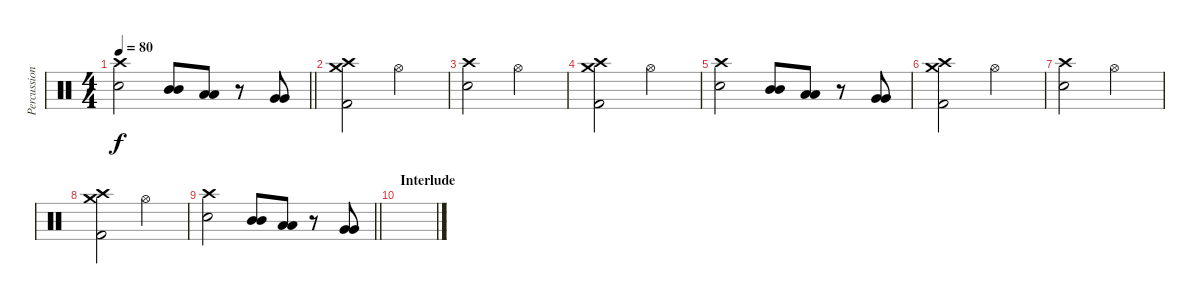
\track ("Percussioni" "Percussion") {instrument percussion}
\staff {score}
\articulation defaults
\ts (4 4)
\tempo 80
\clef neutral
\barLineRight lightlight
\ks c
("Crash high (hit)" "Snare (hit) 2").2{dy f} ("Mid Tom (hit)" "Mid Tom (hit)").8 ("Low Tom (hit)" "Low Tom (hit)").8 r.8 ("Very Low Tom (hit)" "Very Low Tom (hit)").8 |
("Crash high (hit)" "Crash medium (hit)" "Kick (hit) 2").2 "Hi-Hat (open)".2 |
("Crash high (hit)" "Snare (hit) 2").2 "Hi-Hat (open)".2 |
("Crash high (hit)" "Crash medium (hit)" "Kick (hit) 2").2 "Hi-Hat (open)".2 |
("Crash high (hit)" "Snare (hit) 2").2 ("Mid Tom (hit)" "Mid Tom (hit)").8 ("Low Tom (hit)" "Low Tom (hit)").8 r.8 ("Very Low Tom (hit)" "Very Low Tom (hit)").8 |
("Crash high (hit)" "Crash medium (hit)" "Kick (hit) 2").2 "Hi-Hat (open)".2 |
("Crash high (hit)" "Snare (hit) 2").2 "Hi-Hat (open)".2 |
("Crash high (hit)" "Crash medium (hit)" "Kick (hit) 2").2 "Hi-Hat (open)".2 |
\barLineRight lightlight
("Crash high (hit)" "Snare (hit) 2").2 ("Mid Tom (hit)" "Mid Tom (hit)").8 ("Low Tom (hit)" "Low Tom (hit)").8 r.8 ("Very Low Tom (hit)" "Very Low Tom (hit)").8 |
\section ("" "Interlude")
